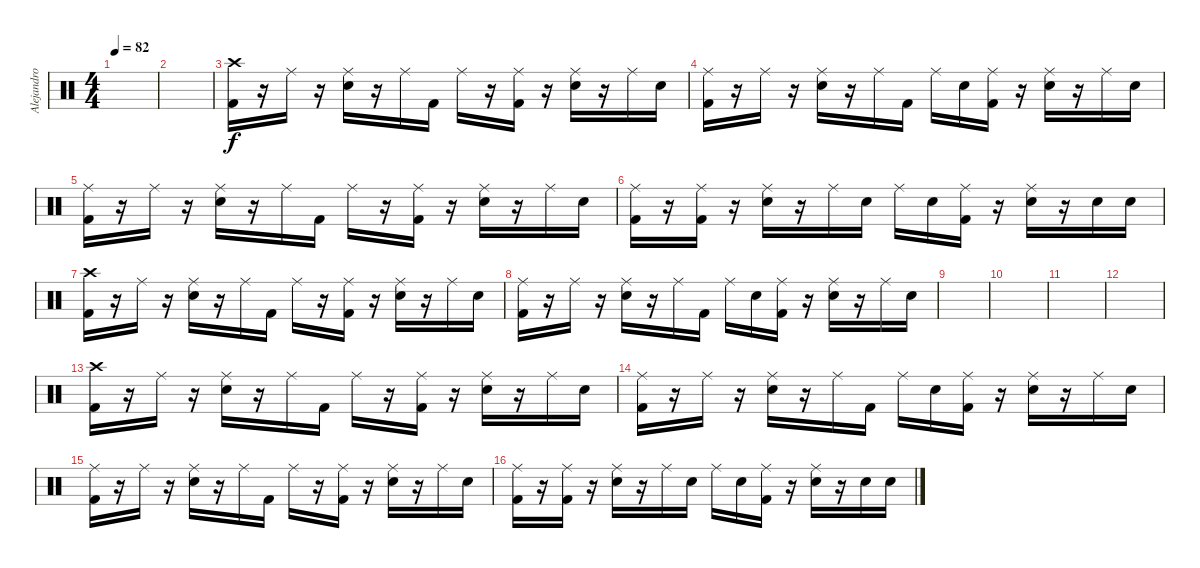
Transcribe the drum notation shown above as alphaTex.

\track ("Alejandro" "Alejandro") {instrument percussion}
\staff {score}
\articulation defaults
\ts (4 4)
\tempo 82
\clef neutral
\ks c
|
|
("Crash high (hit)" "Kick (hit) 2").16 r.16 "Ride (middle)".16 r.16 ("Ride (middle)" "Electric Snare (hit)").16 r.16 "Ride (middle)".16 "Kick (hit) 2".16 "Ride (middle)".16 r.16 ("Ride (middle)" "Kick (hit) 2").16 r.16 ("Ride (middle)" "Electric Snare (hit)").16 r.16 "Ride (middle)".16 "Snare (hit)".16 |
("Ride (middle)" "Kick (hit) 2").16 r.16 "Ride (middle)".16 r.16 ("Ride (middle)" "Electric Snare (hit)").16 r.16 "Ride (middle)".16 "Kick (hit) 2".16 "Ride (middle)".16 "Electric Snare (hit)".16 ("Ride (middle)" "Kick (hit) 2").16 r.16 ("Ride (middle)" "Electric Snare (hit)").16 r.16 "Ride (middle)".16 "Snare (hit)".16 |
("Ride (middle)" "Kick (hit) 2").16 r.16 "Ride (middle)".16 r.16 ("Ride (middle)" "Electric Snare (hit)").16 r.16 "Ride (middle)".16 "Kick (hit) 2".16 "Ride (middle)".16 r.16 ("Ride (middle)" "Kick (hit) 2").16 r.16 ("Ride (middle)" "Electric Snare (hit)").16 r.16 "Ride (middle)".16 "Snare (hit)".16 |
("Ride (middle)" "Kick (hit) 2").16 r.16 ("Ride (middle)" "Kick (hit) 2").16 r.16 ("Ride (middle)" "Electric Snare (hit)").16 r.16 "Ride (middle)".16 "Electric Snare (hit)".16 "Ride (middle)".16 "Electric Snare (hit)".16 ("Ride (middle)" "Kick (hit) 2").16 r.16 ("Ride (middle)" "Electric Snare (hit)").16 r.16 "Electric Snare (hit)".16 "Electric Snare (hit)".16 |
("Crash high (hit)" "Kick (hit) 2").16 r.16 "Ride (middle)".16 r.16 ("Ride (middle)" "Electric Snare (hit)").16 r.16 "Ride (middle)".16 "Kick (hit) 2".16 "Ride (middle)".16 r.16 ("Ride (middle)" "Kick (hit) 2").16 r.16 ("Ride (middle)" "Electric Snare (hit)").16 r.16 "Ride (middle)".16 "Snare (hit)".16 |
("Ride (middle)" "Kick (hit) 2").16 r.16 "Ride (middle)".16 r.16 ("Ride (middle)" "Electric Snare (hit)").16 r.16 "Ride (middle)".16 "Kick (hit) 2".16 "Ride (middle)".16 "Electric Snare (hit)".16 ("Ride (middle)" "Kick (hit) 2").16 r.16 ("Ride (middle)" "Electric Snare (hit)").16 r.16 "Ride (middle)".16 "Snare (hit)".16 |
|
|
|
|
("Crash high (hit)" "Kick (hit) 2").16 r.16 "Ride (middle)".16 r.16 ("Ride (middle)" "Electric Snare (hit)").16 r.16 "Ride (middle)".16 "Kick (hit) 2".16 "Ride (middle)".16 r.16 ("Ride (middle)" "Kick (hit) 2").16 r.16 ("Ride (middle)" "Electric Snare (hit)").16 r.16 "Ride (middle)".16 "Snare (hit)".16 |
("Ride (middle)" "Kick (hit) 2").16 r.16 "Ride (middle)".16 r.16 ("Ride (middle)" "Electric Snare (hit)").16 r.16 "Ride (middle)".16 "Kick (hit) 2".16 "Ride (middle)".16 "Electric Snare (hit)".16 ("Ride (middle)" "Kick (hit) 2").16 r.16 ("Ride (middle)" "Electric Snare (hit)").16 r.16 "Ride (middle)".16 "Snare (hit)".16 |
("Ride (middle)" "Kick (hit) 2").16 r.16 "Ride (middle)".16 r.16 ("Ride (middle)" "Electric Snare (hit)").16 r.16 "Ride (middle)".16 "Kick (hit) 2".16 "Ride (middle)".16 r.16 ("Ride (middle)" "Kick (hit) 2").16 r.16 ("Ride (middle)" "Electric Snare (hit)").16 r.16 "Ride (middle)".16 "Snare (hit)".16 |
("Ride (middle)" "Kick (hit) 2").16 r.16 ("Ride (middle)" "Kick (hit) 2").16 r.16 ("Ride (middle)" "Electric Snare (hit)").16 r.16 "Ride (middle)".16 "Electric Snare (hit)".16 "Ride (middle)".16 "Electric Snare (hit)".16 ("Ride (middle)" "Kick (hit) 2").16 r.16 ("Ride (middle)" "Electric Snare (hit)").16 r.16 "Electric Snare (hit)".16 "Electric Snare (hit)".16
